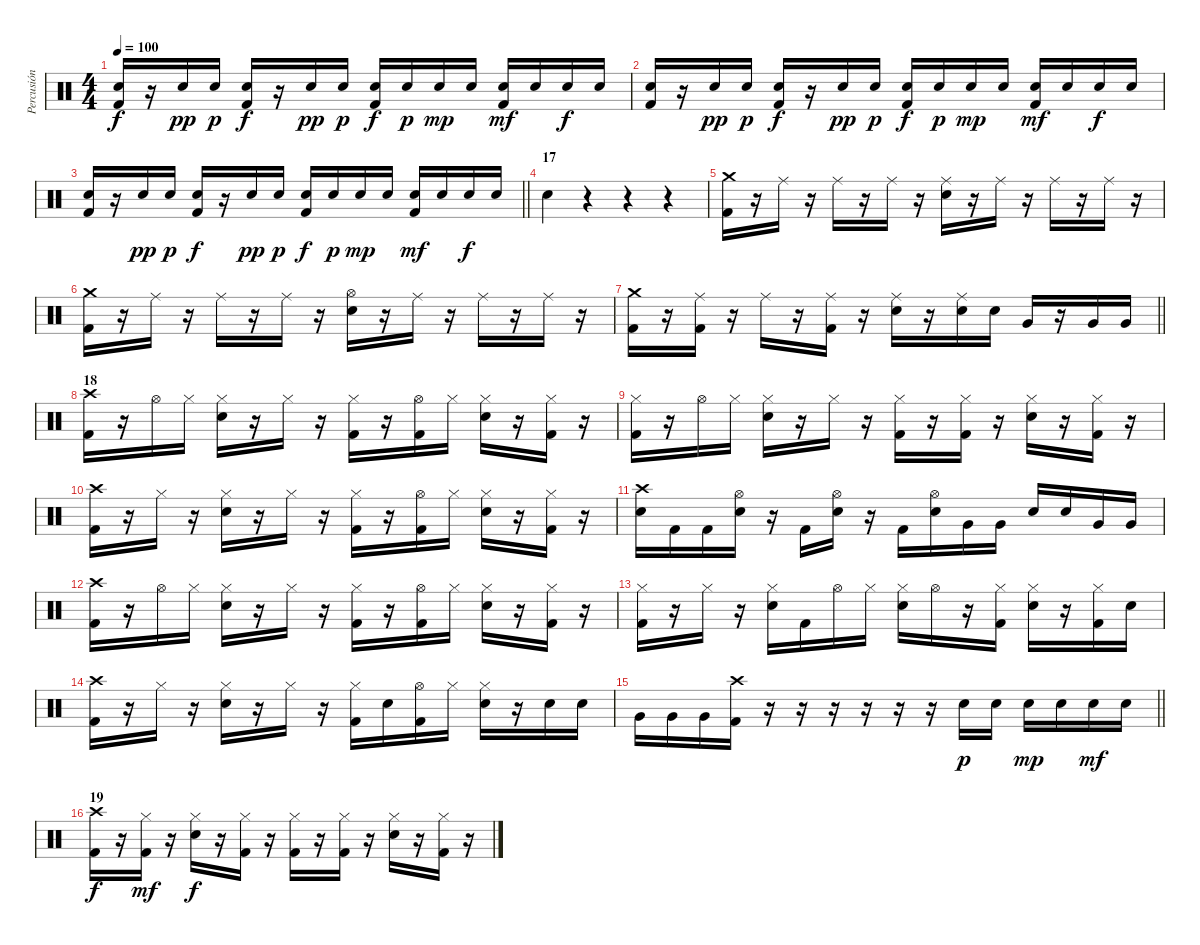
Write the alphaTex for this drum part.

\track ("Percusión" "Percusión") {instrument percussion}
\staff {score}
\articulation defaults
\ts (4 4)
\tempo 100
\clef neutral
\ks c
("Electric Snare (hit)" "Kick (hit) 2").16{dy f} r.16 "Electric Snare (hit)".16{dy pp} "Electric Snare (hit)".16{dy p} ("Electric Snare (hit)" "Kick (hit) 2").16{dy f} r.16 "Electric Snare (hit)".16{dy pp} "Electric Snare (hit)".16{dy p} ("Electric Snare (hit)" "Kick (hit) 2").16{dy f} "Electric Snare (hit)".16{dy p} "Electric Snare (hit)".16{dy mp} "Electric Snare (hit)".16 ("Electric Snare (hit)" "Kick (hit) 2").16{dy mf} "Electric Snare (hit)".16 "Electric Snare (hit)".16{dy f} "Electric Snare (hit)".16 |
("Electric Snare (hit)" "Kick (hit) 2").16 r.16 "Electric Snare (hit)".16{dy pp} "Electric Snare (hit)".16{dy p} ("Electric Snare (hit)" "Kick (hit) 2").16{dy f} r.16 "Electric Snare (hit)".16{dy pp} "Electric Snare (hit)".16{dy p} ("Electric Snare (hit)" "Kick (hit) 2").16{dy f} "Electric Snare (hit)".16{dy p} "Electric Snare (hit)".16{dy mp} "Electric Snare (hit)".16 ("Electric Snare (hit)" "Kick (hit) 2").16{dy mf} "Electric Snare (hit)".16 "Electric Snare (hit)".16{dy f} "Electric Snare (hit)".16 |
\barLineRight lightlight
("Electric Snare (hit)" "Kick (hit) 2").16 r.16 "Electric Snare (hit)".16{dy pp} "Electric Snare (hit)".16{dy p} ("Electric Snare (hit)" "Kick (hit) 2").16{dy f} r.16 "Electric Snare (hit)".16{dy pp} "Electric Snare (hit)".16{dy p} ("Electric Snare (hit)" "Kick (hit) 2").16{dy f} "Electric Snare (hit)".16{dy p} "Electric Snare (hit)".16{dy mp} "Electric Snare (hit)".16 ("Electric Snare (hit)" "Kick (hit) 2").16{dy mf} "Electric Snare (hit)".16 "Electric Snare (hit)".16{dy f} "Electric Snare (hit)".16 |
\section ("" "17")
"Electric Snare (hit)".4 r.4 r.4 r.4 |
("Crash medium (hit)" "Kick (hit) 2").16 r.16 "Ride (middle)".16 r.16 "Ride (middle)".16 r.16 "Ride (middle)".16 r.16 ("Ride (middle)" "Electric Snare (hit)").16 r.16 "Ride (middle)".16 r.16 "Ride (middle)".16 r.16 "Ride (middle)".16 r.16 |
("Crash medium (hit)" "Kick (hit) 2").16 r.16 "Ride (middle)".16 r.16 "Ride (middle)".16 r.16 "Ride (middle)".16 r.16 ("Hi-Hat (open)" "Electric Snare (hit)").16 r.16 "Ride (middle)".16 r.16 "Ride (middle)".16 r.16 "Ride (middle)".16 r.16 |
\barLineRight lightlight
("Crash medium (hit)" "Kick (hit) 2").16 r.16 ("Ride (middle)" "Kick (hit) 2").16 r.16 "Ride (middle)".16 r.16 ("Ride (middle)" "Kick (hit) 2").16 r.16 ("Ride (middle)" "Electric Snare (hit)").16 r.16 ("Ride (middle)" "Electric Snare (hit)").16 "Electric Snare (hit)".16 "Very Low Tom (hit)".16 r.16 "Very Low Tom (hit)".16 "Very Low Tom (hit)".16 |
\section ("" "18")
("Crash high (hit)" "Kick (hit) 2").16 r.16 "Hi-Hat (open)".16 "Hi-Hat (closed)".16 ("Hi-Hat (closed)" "Electric Snare (hit)").16 r.16 "Hi-Hat (closed)".16 r.16 ("Hi-Hat (closed)" "Kick (hit) 2").16 r.16 ("Hi-Hat (open)" "Kick (hit) 2").16 "Hi-Hat (closed)".16 ("Hi-Hat (closed)" "Electric Snare (hit)").16 r.16 ("Hi-Hat (closed)" "Kick (hit) 2").16 r.16 |
("Hi-Hat (closed)" "Kick (hit) 2").16 r.16 "Hi-Hat (open)".16 "Hi-Hat (closed)".16 ("Hi-Hat (closed)" "Electric Snare (hit)").16 r.16 "Hi-Hat (closed)".16 r.16 ("Hi-Hat (closed)" "Kick (hit) 2").16 r.16 ("Hi-Hat (closed)" "Kick (hit) 2").16 r.16 ("Hi-Hat (closed)" "Electric Snare (hit)").16 r.16 ("Hi-Hat (closed)" "Kick (hit) 2").16 r.16 |
("Crash high (hit)" "Kick (hit) 2").16 r.16 "Hi-Hat (closed)".16 r.16 ("Hi-Hat (closed)" "Electric Snare (hit)").16 r.16 "Hi-Hat (closed)".16 r.16 ("Hi-Hat (closed)" "Kick (hit) 2").16 r.16 ("Hi-Hat (open)" "Kick (hit) 2").16 "Hi-Hat (closed)".16 ("Hi-Hat (closed)" "Electric Snare (hit)").16 r.16 ("Hi-Hat (closed)" "Kick (hit) 2").16 r.16 |
("Crash high (hit)" "Electric Snare (hit)").16 "Kick (hit) 2".16 "Kick (hit) 2".16 ("Hi-Hat (open)" "Electric Snare (hit)").16 r.16 "Kick (hit) 2".16 ("Hi-Hat (open)" "Electric Snare (hit)").16 r.16 "Kick (hit) 2".16 ("Hi-Hat (open)" "Electric Snare (hit)").16 "Very Low Tom (hit)".16 "Very Low Tom (hit)".16 "Electric Snare (hit)".16 "Electric Snare (hit)".16 "Very Low Tom (hit)".16 "Very Low Tom (hit)".16 |
("Crash high (hit)" "Kick (hit) 2").16 r.16 "Hi-Hat (open)".16 "Hi-Hat (closed)".16 ("Hi-Hat (closed)" "Electric Snare (hit)").16 r.16 "Hi-Hat (closed)".16 r.16 ("Hi-Hat (closed)" "Kick (hit) 2").16 r.16 ("Hi-Hat (open)" "Kick (hit) 2").16 "Hi-Hat (closed)".16 ("Hi-Hat (closed)" "Electric Snare (hit)").16 r.16 ("Hi-Hat (closed)" "Kick (hit) 2").16 r.16 |
("Hi-Hat (closed)" "Kick (hit) 2").16 r.16 "Hi-Hat (closed)".16 r.16 ("Hi-Hat (closed)" "Electric Snare (hit)").16 "Kick (hit) 2".16 "Hi-Hat (open)".16 "Hi-Hat (closed)".16 ("Hi-Hat (closed)" "Electric Snare (hit)").16 "Hi-Hat (open)".16 r.16 ("Hi-Hat (closed)" "Kick (hit) 2").16 ("Hi-Hat (closed)" "Electric Snare (hit)").16 r.16 ("Hi-Hat (closed)" "Kick (hit) 2").16 "Electric Snare (hit)".16 |
("Crash high (hit)" "Kick (hit) 2").16 r.16 "Hi-Hat (closed)".16 r.16 ("Hi-Hat (closed)" "Electric Snare (hit)").16 r.16 "Hi-Hat (closed)".16 r.16 ("Hi-Hat (closed)" "Kick (hit) 2").16 "Electric Snare (hit)".16 ("Hi-Hat (open)" "Kick (hit) 2").16 "Hi-Hat (closed)".16 ("Hi-Hat (closed)" "Electric Snare (hit)").16 r.16 "Electric Snare (hit)".16 "Electric Snare (hit)".16 |
\barLineRight lightlight "Very Low Tom (hit)".16 "Very Low Tom (hit)".16 "Very Low Tom (hit)".16
("Crash high (hit)" "Kick (hit) 2").16 r.16 r.16 r.16 r.16 r.16 r.16 "Electric Snare (hit)".16{dy p} "Electric Snare (hit)".16 "Electric Snare (hit)".16{dy mp} "Electric Snare (hit)".16 "Electric Snare (hit)".16{dy mf} "Electric Snare (hit)".16 |
\section ("" "19")
("Crash high (hit)" "Kick (hit) 2").16{dy f} r.16 ("Hi-Hat (closed)" "Kick (hit) 2").16{dy mf} r.16 ("Hi-Hat (closed)" "Electric Snare (hit)").16{dy f} r.16 ("Hi-Hat (closed)" "Kick (hit) 2").16 r.16 ("Hi-Hat (closed)" "Kick (hit) 2").16 r.16 ("Hi-Hat (closed)" "Kick (hit) 2").16 r.16 ("Hi-Hat (closed)" "Electric Snare (hit)").16 r.16 ("Hi-Hat (closed)" "Kick (hit) 2").16 r.16
